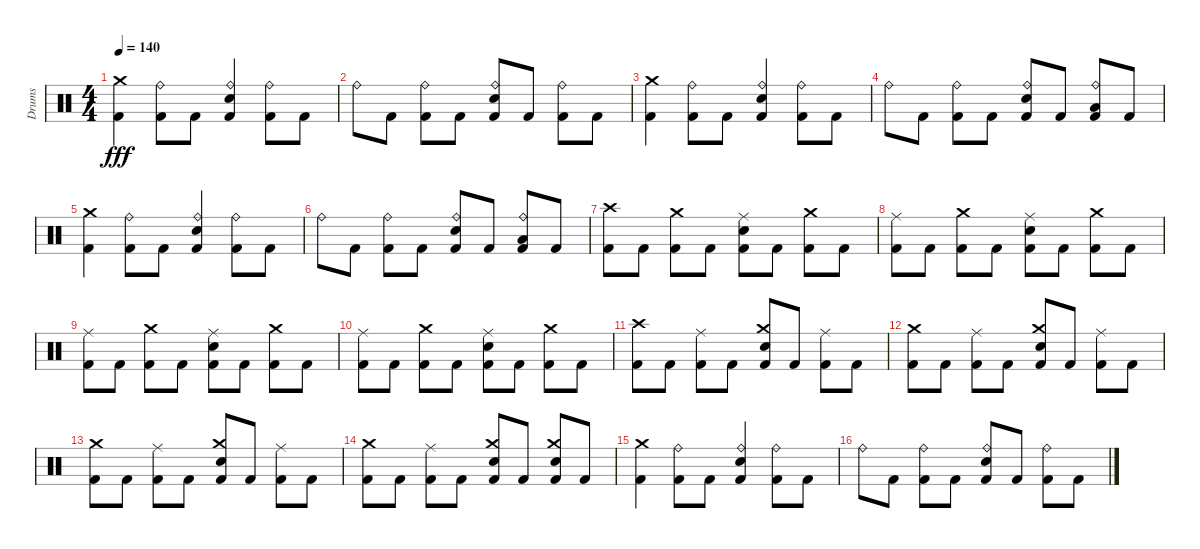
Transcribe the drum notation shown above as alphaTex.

\track ("Drums" "Drums") {instrument percussion}
\staff {score}
\articulation defaults
\ts (4 4)
\tempo 140
\clef neutral
\ks c
("Kick (hit) 2" "Crash medium (hit)").4{dy fff} ("Kick (hit) 2" "Ride (bell)").8 "Kick (hit) 2".8 ("Kick (hit) 2" "Electric Snare (hit)" "Ride (bell)").4 ("Kick (hit) 2" "Ride (bell)").8 "Kick (hit) 2".8 |
"Ride (bell)".8 "Kick (hit) 2".8 ("Kick (hit) 2" "Ride (bell)").8 "Kick (hit) 2".8 ("Kick (hit) 2" "Electric Snare (hit)" "Ride (bell)").8 "Kick (hit) 2".8 ("Kick (hit) 2" "Ride (bell)").8 "Kick (hit) 2".8 |
("Kick (hit) 2" "Crash medium (hit)").4 ("Kick (hit) 2" "Ride (bell)").8 "Kick (hit) 2".8 ("Kick (hit) 2" "Electric Snare (hit)" "Ride (bell)").4 ("Kick (hit) 2" "Ride (bell)").8 "Kick (hit) 2".8 |
"Ride (bell)".8 "Kick (hit) 2".8 ("Kick (hit) 2" "Ride (bell)").8 "Kick (hit) 2".8 ("Kick (hit) 2" "Electric Snare (hit)" "Ride (bell)").8 "Kick (hit) 2".8 ("Kick (hit) 2" "Low Floor Tom (hit)" "Ride (bell)").8 "Kick (hit) 2".8 |
("Kick (hit) 2" "Crash medium (hit)").4 ("Kick (hit) 2" "Ride (bell)").8 "Kick (hit) 2".8 ("Kick (hit) 2" "Electric Snare (hit)" "Ride (bell)").4 ("Kick (hit) 2" "Ride (bell)").8 "Kick (hit) 2".8 |
"Ride (bell)".8 "Kick (hit) 2".8 ("Kick (hit) 2" "Ride (bell)").8 "Kick (hit) 2".8 ("Kick (hit) 2" "Electric Snare (hit)" "Ride (bell)").8 "Kick (hit) 2".8 ("Kick (hit) 2" "Low Floor Tom (hit)" "Ride (bell)").8 "Kick (hit) 2".8 |
("Kick (hit) 2" "Crash high (hit)").8 "Kick (hit) 2".8 ("Kick (hit) 2" "Crash medium (hit)").8 "Kick (hit) 2".8 ("Kick (hit) 2" "Electric Snare (hit)" "Ride (middle)").8 "Kick (hit) 2".8 ("Kick (hit) 2" "Crash medium (hit)").8 "Kick (hit) 2".8 |
("Kick (hit) 2" "Ride (middle)").8 "Kick (hit) 2".8 ("Kick (hit) 2" "Crash medium (hit)").8 "Kick (hit) 2".8 ("Kick (hit) 2" "Electric Snare (hit)" "Ride (middle)").8 "Kick (hit) 2".8 ("Kick (hit) 2" "Crash medium (hit)").8 "Kick (hit) 2".8 |
("Kick (hit) 2" "Ride (middle)").8 "Kick (hit) 2".8 ("Kick (hit) 2" "Crash medium (hit)").8 "Kick (hit) 2".8 ("Kick (hit) 2" "Electric Snare (hit)" "Ride (middle)").8 "Kick (hit) 2".8 ("Kick (hit) 2" "Crash medium (hit)").8 "Kick (hit) 2".8 |
("Kick (hit) 2" "Ride (middle)").8 "Kick (hit) 2".8 ("Kick (hit) 2" "Crash medium (hit)").8 "Kick (hit) 2".8 ("Kick (hit) 2" "Electric Snare (hit)" "Ride (middle)").8 "Kick (hit) 2".8 ("Kick (hit) 2" "Crash medium (hit)").8 "Kick (hit) 2".8 |
("Kick (hit) 2" "Crash high (hit)").8 "Kick (hit) 2".8 ("Kick (hit) 2" "Ride (middle)").8 "Kick (hit) 2".8 ("Kick (hit) 2" "Electric Snare (hit)" "Crash medium (hit)").8 "Kick (hit) 2".8 ("Kick (hit) 2" "Ride (middle)").8 "Kick (hit) 2".8 |
("Kick (hit) 2" "Crash medium (hit)").8 "Kick (hit) 2".8 ("Kick (hit) 2" "Ride (middle)").8 "Kick (hit) 2".8 ("Kick (hit) 2" "Electric Snare (hit)" "Crash medium (hit)").8 "Kick (hit) 2".8 ("Kick (hit) 2" "Ride (middle)").8 "Kick (hit) 2".8 |
("Kick (hit) 2" "Crash medium (hit)").8 "Kick (hit) 2".8 ("Kick (hit) 2" "Ride (middle)").8 "Kick (hit) 2".8 ("Kick (hit) 2" "Electric Snare (hit)" "Crash medium (hit)").8 "Kick (hit) 2".8 ("Kick (hit) 2" "Ride (middle)").8 "Kick (hit) 2".8 |
("Kick (hit) 2" "Crash medium (hit)").8 "Kick (hit) 2".8 ("Kick (hit) 2" "Ride (middle)").8 "Kick (hit) 2".8 ("Kick (hit) 2" "Electric Snare (hit)" "Crash medium (hit)").8 "Kick (hit) 2".8 ("Kick (hit) 2" "Electric Snare (hit)" "Crash medium (hit)").8 "Kick (hit) 2".8 |
("Kick (hit) 2" "Crash medium (hit)").4 ("Kick (hit) 2" "Ride (bell)").8 "Kick (hit) 2".8 ("Kick (hit) 2" "Electric Snare (hit)" "Ride (bell)").4 ("Kick (hit) 2" "Ride (bell)").8 "Kick (hit) 2".8 |
"Ride (bell)".8 "Kick (hit) 2".8 ("Kick (hit) 2" "Ride (bell)").8 "Kick (hit) 2".8 ("Kick (hit) 2" "Electric Snare (hit)" "Ride (bell)").8 "Kick (hit) 2".8 ("Kick (hit) 2" "Ride (bell)").8 "Kick (hit) 2".8
